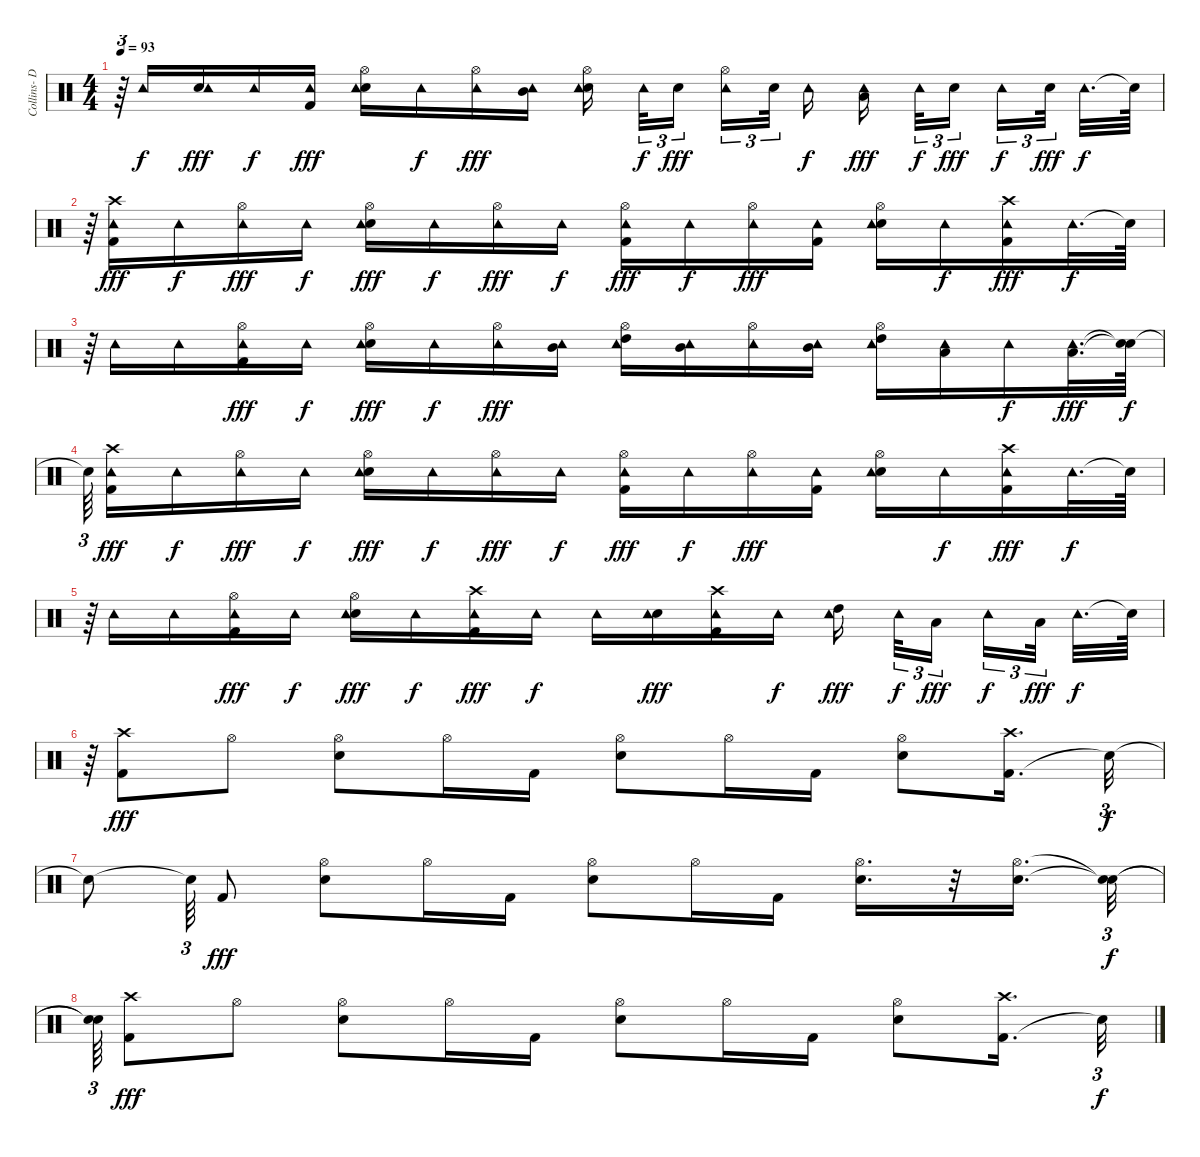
\track ("Collins- Drums" "Collins- D") {instrument percussion}
\staff {score}
\articulation defaults
\ts (4 4)
\tempo 93
\clef neutral
\ks c
r.64{tu (3 2) dy f} "Tambourine (hit)".16 ("Electric Snare (hit)" "Tambourine (hit)").16{dy fff} "Tambourine (hit)".16{dy f} ("Kick (hit) 2" "Tambourine (hit)").16{dy fff} ("Hi-Hat (open)" "Electric Snare (hit)" "Tambourine (hit)").16 "Tambourine (hit)".16{dy f} ("Hi-Hat (open)" "Tambourine (hit)").16{dy fff} ("Mid Tom (hit)" "Tambourine (hit)").16 ("Electric Snare (hit)" "Hi-Hat (open)" "Tambourine (hit)").16{beam splitsecondary} "Tambourine (hit)".32{tu (3 2) dy f} "Electric Snare (hit)".16{tu (3 2) dy fff beam splitsecondary} ("Hi-Hat (open)" "Tambourine (hit)").16{tu (3 2)} "Electric Snare (hit)".32{tu (3 2) beam splitsecondary} "Tambourine (hit)".16{dy f} ("Low Tom (hit)" "Tambourine (hit)").16{dy fff beam splitsecondary} "Tambourine (hit)".32{tu (3 2) dy f} "Electric Snare (hit)".16{tu (3 2) dy fff beam splitsecondary} "Tambourine (hit)".16{tu (3 2) dy f} "Electric Snare (hit)".32{tu (3 2) dy fff beam splitsecondary} "Tambourine (hit)".32{d dy f} "Snare (hit)"{t}.64 |
r.64{tu (3 2)} ("Crash high (hit)" "Kick (hit) 2" "Tambourine (hit)").16{dy fff} "Tambourine (hit)".16{dy f} ("Hi-Hat (open)" "Tambourine (hit)").16{dy fff} "Tambourine (hit)".16{dy f} ("Hi-Hat (open)" "Electric Snare (hit)" "Tambourine (hit)").16{dy fff} "Tambourine (hit)".16{dy f} ("Hi-Hat (open)" "Tambourine (hit)").16{dy fff} "Tambourine (hit)".16{dy f} ("Hi-Hat (open)" "Kick (hit) 2" "Tambourine (hit)").16{dy fff} "Tambourine (hit)".16{dy f} ("Hi-Hat (open)" "Tambourine (hit)").16{dy fff} ("Kick (hit) 2" "Tambourine (hit)").16 ("Hi-Hat (open)" "Electric Snare (hit)" "Tambourine (hit)").16 "Tambourine (hit)".16{dy f} ("Kick (hit) 2" "Crash high (hit)" "Tambourine (hit)").16{dy fff} "Tambourine (hit)".32{d dy f} "Snare (hit)"{t}.64 |
r.64{tu (3 2)} "Tambourine (hit)".16 "Tambourine (hit)".16 ("Hi-Hat (open)" "Kick (hit) 2" "Tambourine (hit)").16{dy fff} "Tambourine (hit)".16{dy f} ("Hi-Hat (open)" "Electric Snare (hit)" "Tambourine (hit)").16{dy fff} "Tambourine (hit)".16{dy f} ("Hi-Hat (open)" "Tambourine (hit)").16{dy fff} ("Mid Tom (hit)" "Tambourine (hit)").16 ("High Tom (hit)" "Hi-Hat (open)" "Tambourine (hit)").16 ("Mid Tom (hit)" "Tambourine (hit)").16 ("Hi-Hat (open)" "Tambourine (hit)").16 ("Mid Tom (hit)" "Tambourine (hit)").16 ("Hi-Hat (open)" "High Tom (hit)" "Tambourine (hit)").16 ("Low Tom (hit)" "Tambourine (hit)").16 "Tambourine (hit)".16{dy f} ("Low Tom (hit)" "Tambourine (hit)").32{d dy fff} ("Snare (hit)"{t} "Snare (hit)"{t}).64{dy f} |
"Snare (hit)"{t}.64{tu (3 2) beam splitsecondary} ("Crash high (hit)" "Kick (hit) 2" "Tambourine (hit)").16{dy fff} "Tambourine (hit)".16{dy f} ("Hi-Hat (open)" "Tambourine (hit)").16{dy fff} "Tambourine (hit)".16{dy f} ("Hi-Hat (open)" "Electric Snare (hit)" "Tambourine (hit)").16{dy fff} "Tambourine (hit)".16{dy f} ("Hi-Hat (open)" "Tambourine (hit)").16{dy fff} "Tambourine (hit)".16{dy f} ("Hi-Hat (open)" "Kick (hit) 2" "Tambourine (hit)").16{dy fff} "Tambourine (hit)".16{dy f} ("Hi-Hat (open)" "Tambourine (hit)").16{dy fff} ("Kick (hit) 2" "Tambourine (hit)").16 ("Hi-Hat (open)" "Electric Snare (hit)" "Tambourine (hit)").16 "Tambourine (hit)".16{dy f} ("Kick (hit) 2" "Crash high (hit)" "Tambourine (hit)").16{dy fff} "Tambourine (hit)".32{d dy f} "Snare (hit)"{t}.64 |
r.64{tu (3 2)} "Tambourine (hit)".16 "Tambourine (hit)".16 ("Hi-Hat (open)" "Kick (hit) 2" "Tambourine (hit)").16{dy fff} "Tambourine (hit)".16{dy f} ("Hi-Hat (open)" "Electric Snare (hit)" "Tambourine (hit)").16{dy fff} "Tambourine (hit)".16{dy f} ("Kick (hit) 2" "Crash high (hit)" "Tambourine (hit)").16{dy fff} "Tambourine (hit)".16{dy f} "Tambourine (hit)".16 ("Electric Snare (hit)" "Tambourine (hit)").16{dy fff} ("Kick (hit) 2" "Crash high (hit)" "Tambourine (hit)").16 "Tambourine (hit)".16{dy f} ("High Tom (hit)" "Tambourine (hit)").16{dy fff beam splitsecondary} "Tambourine (hit)".32{tu (3 2) dy f} "Low Tom (hit)".16{tu (3 2) dy fff beam splitsecondary} "Tambourine (hit)".16{tu (3 2) dy f} "Low Tom (hit)".32{tu (3 2) dy fff beam splitsecondary} "Tambourine (hit)".32{d dy f} "Snare (hit)"{t}.64 |
r.64{tu (3 2)} ("Crash high (hit)" "Kick (hit) 2").8{dy fff} "Hi-Hat (open)".8 ("Hi-Hat (open)" "Electric Snare (hit)").8 "Hi-Hat (open)".16 "Kick (hit) 2".16 ("Hi-Hat (open)" "Electric Snare (hit)").8 "Hi-Hat (open)".16 "Kick (hit) 2".16 ("Hi-Hat (open)" "Electric Snare (hit)").8 ("Kick (hit) 2" "Crash high (hit)").16{d} "Snare (hit)"{t}.32{tu (3 2) dy f} |
"Snare (hit)"{t}.8 "Snare (hit)"{t}.64{tu (3 2)} "Kick (hit) 2".8{dy fff} ("Hi-Hat (open)" "Electric Snare (hit)").8 "Hi-Hat (open)".16 "Kick (hit) 2".16 ("Electric Snare (hit)" "Hi-Hat (open)").8 "Hi-Hat (open)".16 "Kick (hit) 2".16 ("Hi-Hat (open)" "Electric Snare (hit)").16{d} r.32 ("Hi-Hat (open)" "Electric Snare (hit)").16{d} ("Snare (hit)"{t} "Snare (hit)"{t}).32{tu (3 2) dy f} |
("Snare (hit)"{t} "Snare (hit)"{t}).64{tu (3 2)} ("Crash high (hit)" "Kick (hit) 2").8{dy fff} "Hi-Hat (open)".8 ("Hi-Hat (open)" "Electric Snare (hit)").8 "Hi-Hat (open)".16 "Kick (hit) 2".16 ("Hi-Hat (open)" "Electric Snare (hit)").8 "Hi-Hat (open)".16 "Kick (hit) 2".16 ("Hi-Hat (open)" "Electric Snare (hit)").8 ("Kick (hit) 2" "Crash high (hit)").16{d} "Snare (hit)"{t}.32{tu (3 2) dy f}
